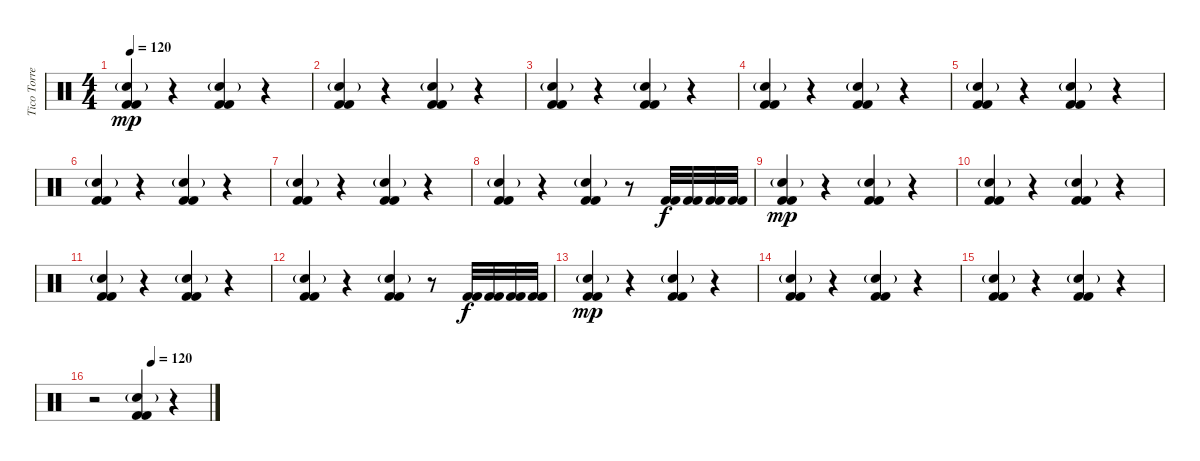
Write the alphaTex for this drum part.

\track ("Tico Torres" "Tico Torre") {instrument percussion}
\staff {score}
\articulation defaults
\ts (4 4)
\tempo 120
\clef neutral
\ks c
("Electric Snare (hit)"{g} "Kick (hit) 2" "Kick (hit) 2").4{dy mp} r.4 ("Electric Snare (hit)"{g} "Kick (hit) 2" "Kick (hit) 2").4 r.4 |
("Electric Snare (hit)"{g} "Kick (hit) 2" "Kick (hit) 2").4 r.4 ("Electric Snare (hit)"{g} "Kick (hit) 2" "Kick (hit) 2").4 r.4 |
("Electric Snare (hit)"{g} "Kick (hit) 2" "Kick (hit) 2").4 r.4 ("Electric Snare (hit)"{g} "Kick (hit) 2" "Kick (hit) 2").4 r.4 |
("Electric Snare (hit)"{g} "Kick (hit) 2" "Kick (hit) 2").4 r.4 ("Electric Snare (hit)"{g} "Kick (hit) 2" "Kick (hit) 2").4 r.4 |
("Electric Snare (hit)"{g} "Kick (hit) 2" "Kick (hit) 2").4 r.4 ("Electric Snare (hit)"{g} "Kick (hit) 2" "Kick (hit) 2").4 r.4 |
("Electric Snare (hit)"{g} "Kick (hit) 2" "Kick (hit) 2").4 r.4 ("Electric Snare (hit)"{g} "Kick (hit) 2" "Kick (hit) 2").4 r.4 |
("Electric Snare (hit)"{g} "Kick (hit) 2" "Kick (hit) 2").4 r.4 ("Electric Snare (hit)"{g} "Kick (hit) 2" "Kick (hit) 2").4 r.4 |
("Electric Snare (hit)"{g} "Kick (hit) 2" "Kick (hit) 2").4 r.4 ("Electric Snare (hit)"{g} "Kick (hit) 2" "Kick (hit) 2").4 r.8 ("Kick (hit) 2" "Kick (hit) 2").32{dy f} ("Kick (hit) 2" "Kick (hit) 2").32 ("Kick (hit) 2" "Kick (hit) 2").32 ("Kick (hit) 2" "Kick (hit) 2").32 |
("Electric Snare (hit)"{g} "Kick (hit) 2" "Kick (hit) 2").4{dy mp} r.4 ("Electric Snare (hit)"{g} "Kick (hit) 2" "Kick (hit) 2").4 r.4 |
("Electric Snare (hit)"{g} "Kick (hit) 2" "Kick (hit) 2").4 r.4 ("Electric Snare (hit)"{g} "Kick (hit) 2" "Kick (hit) 2").4 r.4 |
("Electric Snare (hit)"{g} "Kick (hit) 2" "Kick (hit) 2").4 r.4 ("Electric Snare (hit)"{g} "Kick (hit) 2" "Kick (hit) 2").4 r.4 |
("Electric Snare (hit)"{g} "Kick (hit) 2" "Kick (hit) 2").4 r.4 ("Electric Snare (hit)"{g} "Kick (hit) 2" "Kick (hit) 2").4 r.8 ("Kick (hit) 2" "Kick (hit) 2").32{dy f} ("Kick (hit) 2" "Kick (hit) 2").32 ("Kick (hit) 2" "Kick (hit) 2").32 ("Kick (hit) 2" "Kick (hit) 2").32 |
("Electric Snare (hit)"{g} "Kick (hit) 2" "Kick (hit) 2").4{dy mp} r.4 ("Electric Snare (hit)"{g} "Kick (hit) 2" "Kick (hit) 2").4 r.4 |
("Electric Snare (hit)"{g} "Kick (hit) 2" "Kick (hit) 2").4 r.4 ("Electric Snare (hit)"{g} "Kick (hit) 2" "Kick (hit) 2").4 r.4 |
("Electric Snare (hit)"{g} "Kick (hit) 2" "Kick (hit) 2").4 r.4 ("Electric Snare (hit)"{g} "Kick (hit) 2" "Kick (hit) 2").4 r.4 |
\tempo (120 0.5)
r.2 ("Electric Snare (hit)"{g} "Kick (hit) 2" "Kick (hit) 2").4 r.4
